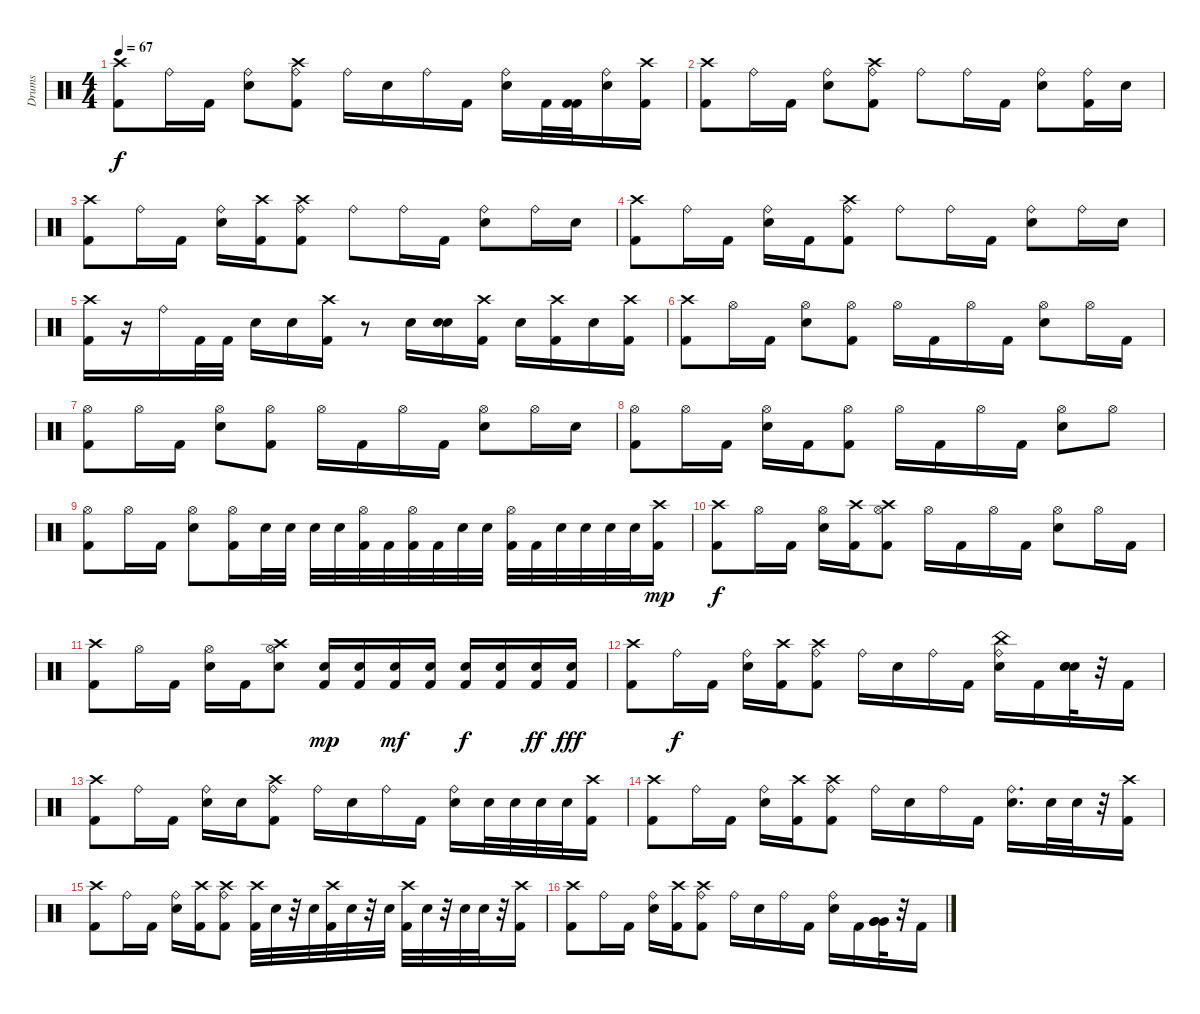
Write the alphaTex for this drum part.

\track ("Drums" "Drums") {instrument percussion}
\staff {score}
\articulation defaults
\ts (4 4)
\tempo 67
\clef neutral
\ks c
("Kick (hit) 2" "Crash high (hit)").8{dy f} "Ride (bell)".16 "Kick (hit) 2".16 ("Electric Snare (hit)" "Ride (bell)").8 ("Kick (hit) 2" "Ride (bell)" "Crash high (hit)").8 "Ride (bell)".16 "Electric Snare (hit)".16 "Ride (bell)".16 "Kick (hit) 2".16 ("Ride (bell)" "Electric Snare (hit)").16 "Kick (hit) 2".32 ("Kick (hit) 2" "Kick (hit) 2").32 ("Ride (bell)" "Electric Snare (hit)").16 ("Kick (hit) 2" "Crash high (hit)").16 |
("Crash high (hit)" "Kick (hit) 2").8 "Ride (bell)".16 "Kick (hit) 2".16 ("Electric Snare (hit)" "Ride (bell)").8 ("Kick (hit) 2" "Ride (bell)" "Crash high (hit)").8 "Ride (bell)".8 "Ride (bell)".16 "Kick (hit) 2".16 ("Electric Snare (hit)" "Ride (bell)").8 ("Ride (bell)" "Kick (hit) 2").16 "Electric Snare (hit)".16 |
("Kick (hit) 2" "Crash high (hit)").8 "Ride (bell)".16 "Kick (hit) 2".16 ("Ride (bell)" "Electric Snare (hit)").16 ("Crash high (hit)" "Kick (hit) 2").16 ("Kick (hit) 2" "Ride (bell)" "Crash high (hit)").8 "Ride (bell)".8 "Ride (bell)".16 "Kick (hit) 2".16 ("Electric Snare (hit)" "Ride (bell)").8 "Ride (bell)".16 "Electric Snare (hit)".16 |
("Crash high (hit)" "Kick (hit) 2").8 "Ride (bell)".16 "Kick (hit) 2".16 ("Ride (bell)" "Electric Snare (hit)").16 "Kick (hit) 2".16 ("Kick (hit) 2" "Ride (bell)" "Crash high (hit)").8 "Ride (bell)".8 "Ride (bell)".16 "Kick (hit) 2".16 ("Electric Snare (hit)" "Ride (bell)").8 "Ride (bell)".16 "Electric Snare (hit)".16 |
("Crash high (hit)" "Kick (hit) 2").16 r.16 "Ride (bell)".16 "Kick (hit) 2".32 "Kick (hit) 2".32 "Electric Snare (hit)".16 "Electric Snare (hit)".16 ("Crash high (hit)" "Kick (hit) 2").16 r.8 "Electric Snare (hit)".16 ("Electric Snare (hit)" "Electric Snare (hit)").16 ("Crash high (hit)" "Kick (hit) 2").16 "Electric Snare (hit)".16 ("Crash high (hit)" "Kick (hit) 2").16 "Electric Snare (hit)".16 ("Kick (hit) 2" "Crash high (hit)").16 |
("Crash high (hit)" "Kick (hit) 2").8 "Hi-Hat (open)".16 "Kick (hit) 2".16 ("Hi-Hat (open)" "Electric Snare (hit)").8 ("Hi-Hat (open)" "Kick (hit) 2").8 "Hi-Hat (open)".16 "Kick (hit) 2".16 "Hi-Hat (open)".16 "Kick (hit) 2".16 ("Hi-Hat (open)" "Electric Snare (hit)").8 "Hi-Hat (open)".16 "Kick (hit) 2".16 |
("Kick (hit) 2" "Hi-Hat (open)").8 "Hi-Hat (open)".16 "Kick (hit) 2".16 ("Hi-Hat (open)" "Electric Snare (hit)").8 ("Hi-Hat (open)" "Kick (hit) 2").8 "Hi-Hat (open)".16 "Kick (hit) 2".16 "Hi-Hat (open)".16 "Kick (hit) 2".16 ("Hi-Hat (open)" "Electric Snare (hit)").8 "Hi-Hat (open)".16 "Electric Snare (hit)".16 |
("Hi-Hat (open)" "Kick (hit) 2").8 "Hi-Hat (open)".16 "Kick (hit) 2".16 ("Hi-Hat (open)" "Electric Snare (hit)").16 "Kick (hit) 2".16 ("Hi-Hat (open)" "Kick (hit) 2").8 "Hi-Hat (open)".16 "Kick (hit) 2".16 "Hi-Hat (open)".16 "Kick (hit) 2".16 ("Hi-Hat (open)" "Electric Snare (hit)").8 "Hi-Hat (open)".8 |
("Hi-Hat (open)" "Kick (hit) 2").8 "Hi-Hat (open)".16 "Kick (hit) 2".16 ("Electric Snare (hit)" "Hi-Hat (open)").8 ("Kick (hit) 2" "Hi-Hat (open)").16 "Electric Snare (hit)".32 "Electric Snare (hit)".32 "Electric Snare (hit)".32 "Electric Snare (hit)".32 ("Kick (hit) 2" "Hi-Hat (open)").32 "Kick (hit) 2".32 ("Kick (hit) 2" "Hi-Hat (open)").32 "Kick (hit) 2".32 "Electric Snare (hit)".32 "Electric Snare (hit)".32 ("Kick (hit) 2" "Hi-Hat (open)").32 "Kick (hit) 2".32 "Electric Snare (hit)".32 "Electric Snare (hit)".32 "Electric Snare (hit)".32 "Electric Snare (hit)".32 ("Crash high (hit)" "Kick (hit) 2").16{dy mp} |
("Kick (hit) 2" "Crash high (hit)").8{dy f} "Hi-Hat (open)".16 "Kick (hit) 2".16 ("Hi-Hat (open)" "Electric Snare (hit)").16 ("Kick (hit) 2" "Crash high (hit)").16 ("Hi-Hat (open)" "Kick (hit) 2" "Crash high (hit)").8 "Hi-Hat (open)".16 "Kick (hit) 2".16 "Hi-Hat (open)".16 "Kick (hit) 2".16 ("Hi-Hat (open)" "Electric Snare (hit)").8 "Hi-Hat (open)".16 "Kick (hit) 2".16 |
("Kick (hit) 2" "Crash high (hit)").8 "Hi-Hat (open)".16 "Kick (hit) 2".16 ("Hi-Hat (open)" "Electric Snare (hit)").16 "Kick (hit) 2".16 ("Hi-Hat (open)" "Crash high (hit)" "Electric Snare (hit)").8 ("Kick (hit) 2" "Electric Snare (hit)").16{dy mp} ("Electric Snare (hit)" "Kick (hit) 2").16 ("Electric Snare (hit)" "Kick (hit) 2").16{dy mf} ("Electric Snare (hit)" "Kick (hit) 2").16 ("Electric Snare (hit)" "Kick (hit) 2").16{dy f} ("Electric Snare (hit)" "Kick (hit) 2").16 ("Electric Snare (hit)" "Kick (hit) 2").16{dy ff} ("Electric Snare (hit)" "Kick (hit) 2").16{dy fff} |
("Crash high (hit)" "Kick (hit) 2").8 "Ride (bell)".16{dy f} "Kick (hit) 2".16 ("Ride (bell)" "Electric Snare (hit)").16 ("Kick (hit) 2" "Crash high (hit)").16 ("Ride (bell)" "Crash high (hit)" "Kick (hit) 2").8 "Ride (bell)".16 "Electric Snare (hit)".16 "Ride (bell)".16 "Kick (hit) 2".16 ("Electric Snare (hit)" "Ride (bell)" "China (hit)").16 "Kick (hit) 2".16 ("Electric Snare (hit)" "Electric Snare (hit)" "Electric Snare (hit)").32 r.32 "Kick (hit) 2".16 |
("Kick (hit) 2" "Crash high (hit)").8 "Ride (bell)".16 "Kick (hit) 2".16 ("Ride (bell)" "Electric Snare (hit)").16 "Electric Snare (hit)".16 ("Ride (bell)" "Crash high (hit)" "Kick (hit) 2").8 "Ride (bell)".16 "Electric Snare (hit)".16 "Ride (bell)".16 "Kick (hit) 2".16 ("Ride (bell)" "Electric Snare (hit)").16 "Electric Snare (hit)".32 "Electric Snare (hit)".32 "Electric Snare (hit)".32 "Electric Snare (hit)".32 ("Crash high (hit)" "Kick (hit) 2").16 |
("Kick (hit) 2" "Crash high (hit)").8 "Ride (bell)".16 "Kick (hit) 2".16 ("Ride (bell)" "Electric Snare (hit)").16 ("Crash high (hit)" "Kick (hit) 2").16 ("Ride (bell)" "Crash high (hit)" "Kick (hit) 2").8 "Ride (bell)".16 "Electric Snare (hit)".16 "Ride (bell)".16 "Kick (hit) 2".16 ("Electric Snare (hit)" "Ride (bell)").16{d} "Electric Snare (hit)".32 "Electric Snare (hit)".32 r.32 ("Kick (hit) 2" "Crash high (hit)").16 |
("Crash high (hit)" "Kick (hit) 2").8 "Ride (bell)".16 "Kick (hit) 2".16 ("Ride (bell)" "Electric Snare (hit)").16 ("Crash high (hit)" "Kick (hit) 2").16 ("Ride (bell)" "Crash high (hit)" "Kick (hit) 2").8 ("Kick (hit) 2" "Crash high (hit)").32 "Electric Snare (hit)".32 r.32 "Electric Snare (hit)".32 ("Kick (hit) 2" "Crash high (hit)").32 "Electric Snare (hit)".32 r.32 "Electric Snare (hit)".32 ("Kick (hit) 2" "Crash high (hit)").32 "Electric Snare (hit)".32 r.32 "Electric Snare (hit)".32 "Electric Snare (hit)".32 r.32 ("Crash high (hit)" "Kick (hit) 2").16 |
("Kick (hit) 2" "Crash high (hit)").8 "Ride (bell)".16 "Kick (hit) 2".16 ("Ride (bell)" "Electric Snare (hit)").16 ("Kick (hit) 2" "Crash high (hit)").16 ("Ride (bell)" "Crash high (hit)" "Kick (hit) 2").8 "Ride (bell)".16 "Electric Snare (hit)".16 "Ride (bell)".16 "Kick (hit) 2".16 ("Electric Snare (hit)" "Ride (bell)").16 "Kick (hit) 2".16 ("Very Low Tom (hit)" "Very Low Tom (hit)" "Very Low Tom (hit)").32 r.32 "Kick (hit) 2".16
